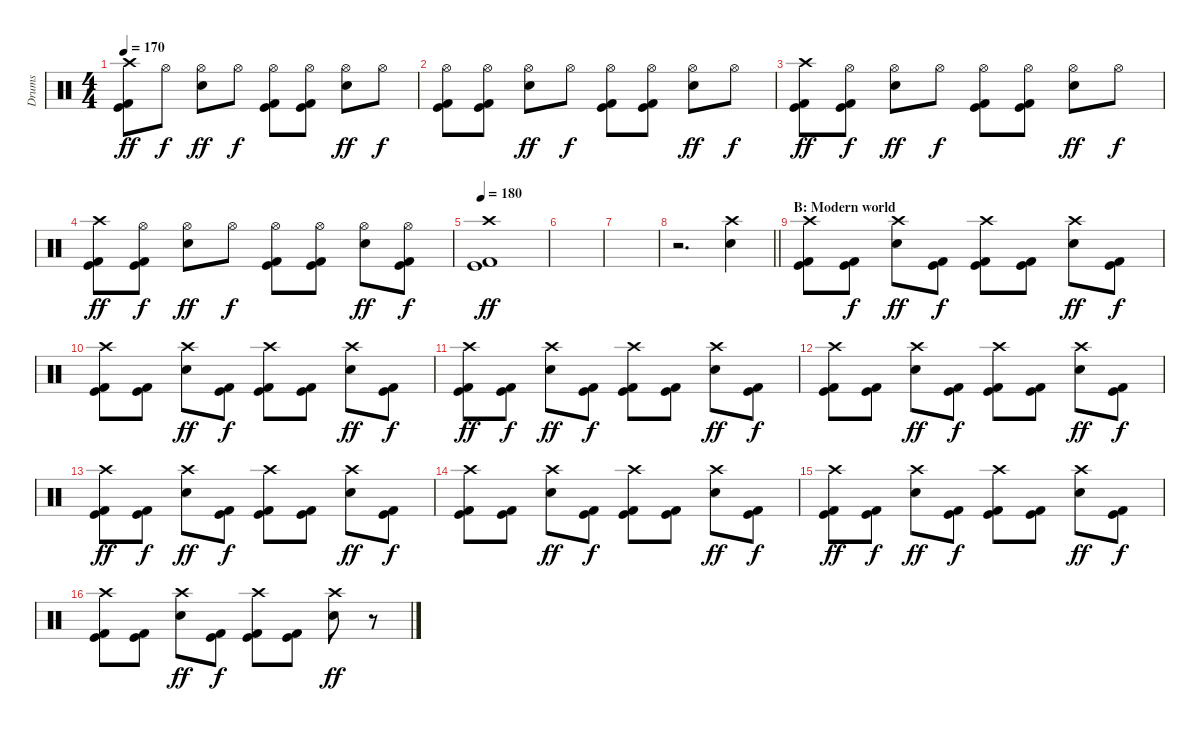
\track ("Drums" "Drums") {instrument percussion}
\staff {score}
\articulation defaults
\ts (4 4)
\tempo 170
\clef neutral
\ks c
("Crash high (hit)" "Kick (hit)" "Kick (hit) 2").8{dy ff} "Hi-Hat (open)".8{dy f} ("Hi-Hat (open)" "Snare (hit) 2").8{dy ff} "Hi-Hat (open)".8{dy f} ("Hi-Hat (open)" "Kick (hit)" "Kick (hit) 2").8 ("Hi-Hat (open)" "Kick (hit)" "Kick (hit) 2").8 ("Hi-Hat (open)" "Snare (hit) 2").8{dy ff} "Hi-Hat (open)".8{dy f} |
("Hi-Hat (open)" "Kick (hit)" "Kick (hit) 2").8 ("Hi-Hat (open)" "Kick (hit)" "Kick (hit) 2").8 ("Hi-Hat (open)" "Snare (hit) 2").8{dy ff} "Hi-Hat (open)".8{dy f} ("Hi-Hat (open)" "Kick (hit)" "Kick (hit) 2").8 ("Hi-Hat (open)" "Kick (hit)" "Kick (hit) 2").8 ("Hi-Hat (open)" "Snare (hit) 2").8{dy ff} "Hi-Hat (open)".8{dy f} |
("Crash high (hit)" "Kick (hit)" "Kick (hit) 2").8{dy ff} ("Hi-Hat (open)" "Kick (hit)" "Kick (hit) 2").8{dy f} ("Hi-Hat (open)" "Snare (hit) 2").8{dy ff} "Hi-Hat (open)".8{dy f} ("Hi-Hat (open)" "Kick (hit)" "Kick (hit) 2").8 ("Hi-Hat (open)" "Kick (hit)" "Kick (hit) 2").8 ("Hi-Hat (open)" "Snare (hit) 2").8{dy ff} "Hi-Hat (open)".8{dy f} |
("Crash high (hit)" "Kick (hit)" "Kick (hit) 2").8{dy ff} ("Hi-Hat (open)" "Kick (hit)" "Kick (hit) 2").8{dy f} ("Hi-Hat (open)" "Snare (hit) 2").8{dy ff} "Hi-Hat (open)".8{dy f} ("Hi-Hat (open)" "Kick (hit)" "Kick (hit) 2").8 ("Hi-Hat (open)" "Kick (hit)" "Kick (hit) 2").8 ("Hi-Hat (open)" "Snare (hit) 2").8{dy ff} ("Hi-Hat (open)" "Kick (hit)" "Kick (hit) 2").8{dy f} |
\tempo 180
("Crash high (hit)" "Kick (hit)" "Kick (hit) 2").1{dy ff} |
|
|
\barLineRight lightlight
r.2{d} ("Crash high (hit)" "Snare (hit) 2").4 |
\section ("" "B: Modern world")
("Crash high (hit)" "Kick (hit)" "Kick (hit) 2").8 ("Kick (hit)" "Kick (hit) 2").8{dy f} ("Crash high (hit)" "Snare (hit) 2").8{dy ff} ("Kick (hit)" "Kick (hit) 2").8{dy f} ("Crash high (hit)" "Kick (hit)" "Kick (hit) 2").8 ("Kick (hit)" "Kick (hit) 2").8 ("Crash high (hit)" "Snare (hit) 2").8{dy ff} ("Kick (hit)" "Kick (hit) 2").8{dy f} |
("Crash high (hit)" "Kick (hit)" "Kick (hit) 2").8 ("Kick (hit)" "Kick (hit) 2").8 ("Crash high (hit)" "Snare (hit) 2").8{dy ff} ("Kick (hit)" "Kick (hit) 2").8{dy f} ("Crash high (hit)" "Kick (hit)" "Kick (hit) 2").8 ("Kick (hit)" "Kick (hit) 2").8 ("Crash high (hit)" "Snare (hit) 2").8{dy ff} ("Kick (hit)" "Kick (hit) 2").8{dy f} |
("Crash high (hit)" "Kick (hit)" "Kick (hit) 2").8{dy ff} ("Kick (hit)" "Kick (hit) 2").8{dy f} ("Crash high (hit)" "Snare (hit) 2").8{dy ff} ("Kick (hit)" "Kick (hit) 2").8{dy f} ("Crash high (hit)" "Kick (hit)" "Kick (hit) 2").8 ("Kick (hit)" "Kick (hit) 2").8 ("Crash high (hit)" "Snare (hit) 2").8{dy ff} ("Kick (hit)" "Kick (hit) 2").8{dy f} |
("Crash high (hit)" "Kick (hit)" "Kick (hit) 2").8 ("Kick (hit)" "Kick (hit) 2").8 ("Crash high (hit)" "Snare (hit) 2").8{dy ff} ("Kick (hit)" "Kick (hit) 2").8{dy f} ("Crash high (hit)" "Kick (hit)" "Kick (hit) 2").8 ("Kick (hit)" "Kick (hit) 2").8 ("Crash high (hit)" "Snare (hit) 2").8{dy ff} ("Kick (hit)" "Kick (hit) 2").8{dy f} |
("Crash high (hit)" "Kick (hit)" "Kick (hit) 2").8{dy ff} ("Kick (hit)" "Kick (hit) 2").8{dy f} ("Crash high (hit)" "Snare (hit) 2").8{dy ff} ("Kick (hit)" "Kick (hit) 2").8{dy f} ("Crash high (hit)" "Kick (hit)" "Kick (hit) 2").8 ("Kick (hit)" "Kick (hit) 2").8 ("Crash high (hit)" "Snare (hit) 2").8{dy ff} ("Kick (hit)" "Kick (hit) 2").8{dy f} |
("Crash high (hit)" "Kick (hit)" "Kick (hit) 2").8 ("Kick (hit)" "Kick (hit) 2").8 ("Crash high (hit)" "Snare (hit) 2").8{dy ff} ("Kick (hit)" "Kick (hit) 2").8{dy f} ("Crash high (hit)" "Kick (hit)" "Kick (hit) 2").8 ("Kick (hit)" "Kick (hit) 2").8 ("Crash high (hit)" "Snare (hit) 2").8{dy ff} ("Kick (hit)" "Kick (hit) 2").8{dy f} |
("Crash high (hit)" "Kick (hit)" "Kick (hit) 2").8{dy ff} ("Kick (hit)" "Kick (hit) 2").8{dy f} ("Crash high (hit)" "Snare (hit) 2").8{dy ff} ("Kick (hit)" "Kick (hit) 2").8{dy f} ("Crash high (hit)" "Kick (hit)" "Kick (hit) 2").8 ("Kick (hit)" "Kick (hit) 2").8 ("Crash high (hit)" "Snare (hit) 2").8{dy ff} ("Kick (hit)" "Kick (hit) 2").8{dy f} |
("Crash high (hit)" "Kick (hit)" "Kick (hit) 2").8 ("Kick (hit)" "Kick (hit) 2").8 ("Crash high (hit)" "Snare (hit) 2").8{dy ff} ("Kick (hit)" "Kick (hit) 2").8{dy f} ("Crash high (hit)" "Kick (hit)" "Kick (hit) 2").8 ("Kick (hit)" "Kick (hit) 2").8 ("Crash high (hit)" "Snare (hit) 2").8{dy ff} r.8
